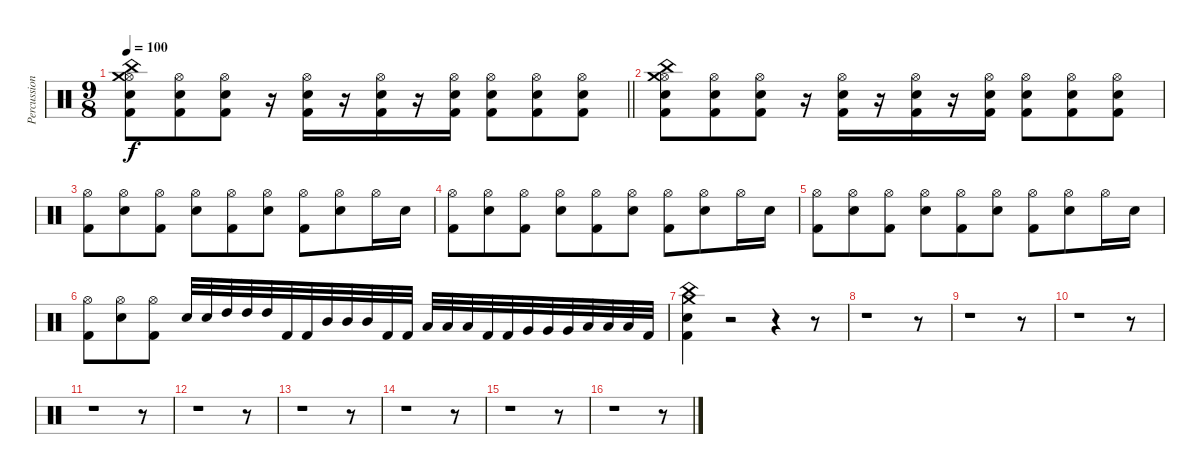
\track ("Percussion" "Percussion") {instrument percussion}
\staff {score}
\articulation defaults
\ts (9 8)
\tempo 100
\clef neutral
\barLineRight lightlight
\ks c
("Hi-Hat (open)" "Crash medium (hit)" "Electric Snare (hit)" "China (hit)" "Kick (hit) 2").8{dy f} ("Hi-Hat (open)" "Electric Snare (hit)" "Kick (hit) 2").8 ("Hi-Hat (open)" "Electric Snare (hit)" "Kick (hit) 2").8 r.16 ("Hi-Hat (open)" "Electric Snare (hit)" "Kick (hit) 2").16 r.16 ("Hi-Hat (open)" "Electric Snare (hit)" "Kick (hit) 2").16 r.16 ("Hi-Hat (open)" "Electric Snare (hit)" "Kick (hit) 2").16 ("Hi-Hat (open)" "Electric Snare (hit)" "Kick (hit) 2").8 ("Hi-Hat (open)" "Electric Snare (hit)" "Kick (hit) 2").8 ("Hi-Hat (open)" "Electric Snare (hit)" "Kick (hit) 2").8 |
("Hi-Hat (open)" "Crash medium (hit)" "Electric Snare (hit)" "China (hit)" "Kick (hit) 2").8 ("Hi-Hat (open)" "Electric Snare (hit)" "Kick (hit) 2").8 ("Hi-Hat (open)" "Electric Snare (hit)" "Kick (hit) 2").8 r.16 ("Hi-Hat (open)" "Electric Snare (hit)" "Kick (hit) 2").16 r.16 ("Hi-Hat (open)" "Electric Snare (hit)" "Kick (hit) 2").16 r.16 ("Hi-Hat (open)" "Electric Snare (hit)" "Kick (hit) 2").16 ("Hi-Hat (open)" "Electric Snare (hit)" "Kick (hit) 2").8 ("Hi-Hat (open)" "Electric Snare (hit)" "Kick (hit) 2").8 ("Hi-Hat (open)" "Electric Snare (hit)" "Kick (hit) 2").8 |
("Hi-Hat (open)" "Kick (hit) 2").8 ("Hi-Hat (open)" "Electric Snare (hit)").8 ("Hi-Hat (open)" "Kick (hit) 2").8 ("Hi-Hat (open)" "Electric Snare (hit)").8 ("Hi-Hat (open)" "Kick (hit) 2").8 ("Hi-Hat (open)" "Electric Snare (hit)").8 ("Hi-Hat (open)" "Kick (hit) 2").8 ("Hi-Hat (open)" "Electric Snare (hit)").8 "Hi-Hat (open)".16 "Electric Snare (hit)".16 |
("Hi-Hat (open)" "Kick (hit) 2").8 ("Hi-Hat (open)" "Electric Snare (hit)").8 ("Hi-Hat (open)" "Kick (hit) 2").8 ("Hi-Hat (open)" "Electric Snare (hit)").8 ("Hi-Hat (open)" "Kick (hit) 2").8 ("Hi-Hat (open)" "Electric Snare (hit)").8 ("Hi-Hat (open)" "Kick (hit) 2").8 ("Hi-Hat (open)" "Electric Snare (hit)").8 "Hi-Hat (open)".16 "Electric Snare (hit)".16 |
("Hi-Hat (open)" "Kick (hit) 2").8 ("Hi-Hat (open)" "Electric Snare (hit)").8 ("Hi-Hat (open)" "Kick (hit) 2").8 ("Hi-Hat (open)" "Electric Snare (hit)").8 ("Hi-Hat (open)" "Kick (hit) 2").8 ("Hi-Hat (open)" "Electric Snare (hit)").8 ("Hi-Hat (open)" "Kick (hit) 2").8 ("Hi-Hat (open)" "Electric Snare (hit)").8 "Hi-Hat (open)".16 "Electric Snare (hit)".16 |
("Hi-Hat (open)" "Kick (hit) 2").8 ("Hi-Hat (open)" "Electric Snare (hit)").8 ("Hi-Hat (open)" "Kick (hit) 2").8 "Electric Snare (hit)".32 "Electric Snare (hit)".32 "High Tom (hit)".32 "High Tom (hit)".32 "High Tom (hit)".32 "Kick (hit) 2".32 "Kick (hit) 2".32 "Mid Tom (hit)".32 "Mid Tom (hit)".32 "Mid Tom (hit)".32 "Kick (hit) 2".32 "Kick (hit) 2".32 "Low Tom (hit)".32 "Low Tom (hit)".32 "Low Tom (hit)".32 "Kick (hit) 2".32 "Kick (hit) 2".32 "Very Low Tom (hit)".32 "Very Low Tom (hit)".32 "Very Low Tom (hit)".32 "Low Floor Tom (hit)".32 "Low Floor Tom (hit)".32 "Low Floor Tom (hit)".32 "Kick (hit) 2".32 |
("China (hit)" "Crash medium (hit)" "Electric Snare (hit)" "Kick (hit) 2").4 r.2 r.4 r.8 |
r.1 r.8 |
r.1 r.8 |
r.1 r.8 |
r.1 r.8 |
r.1 r.8 |
r.1 r.8 |
r.1 r.8 |
r.1 r.8 |
r.1 r.8
